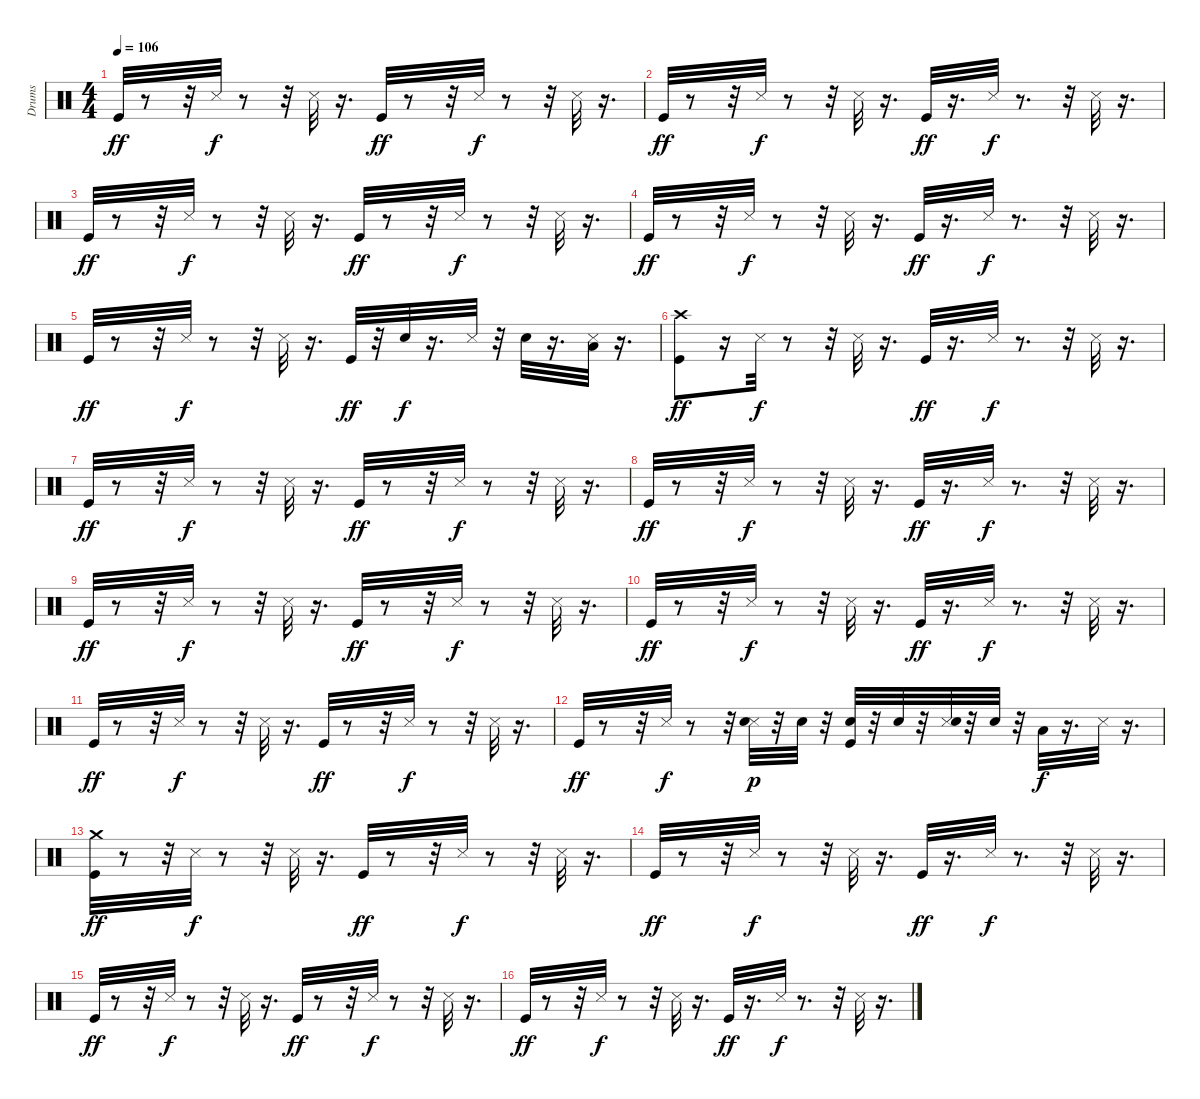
\track ("Drums" "Drums") {instrument percussion}
\staff {score}
\articulation defaults
\ts (4 4)
\tempo 106
\clef neutral
\ks c "Kick (hit)".32{dy ff}
r.8 r.32 "Snare (side stick) 3".32{dy f} r.8 r.32 "Snare (side stick) 3".32 r.16{d} "Kick (hit)".32{dy ff} r.8 r.32 "Snare (side stick) 3".32{dy f} r.8 r.32 "Snare (side stick) 3".32 r.16{d} |
"Kick (hit)".32{dy ff} r.8 r.32 "Snare (side stick) 3".32{dy f} r.8 r.32 "Snare (side stick) 3".32 r.16{d} "Kick (hit)".32{dy ff} r.16{d} "Snare (side stick) 3".32{dy f} r.8{d} r.32 "Snare (side stick) 3".32 r.16{d} |
"Kick (hit)".32{dy ff} r.8 r.32 "Snare (side stick) 3".32{dy f} r.8 r.32 "Snare (side stick) 3".32 r.16{d} "Kick (hit)".32{dy ff} r.8 r.32 "Snare (side stick) 3".32{dy f} r.8 r.32 "Snare (side stick) 3".32 r.16{d} |
"Kick (hit)".32{dy ff} r.8 r.32 "Snare (side stick) 3".32{dy f} r.8 r.32 "Snare (side stick) 3".32 r.16{d} "Kick (hit)".32{dy ff} r.16{d} "Snare (side stick) 3".32{dy f} r.8{d} r.32 "Snare (side stick) 3".32 r.16{d} |
"Kick (hit)".32{dy ff} r.8 r.32 "Snare (side stick) 3".32{dy f} r.8 r.32 "Snare (side stick) 3".32 r.16{d} "Kick (hit)".32{dy ff} r.32 "Snare (hit) 2".32{dy f} r.16{d} "Snare (side stick) 3".32 r.32 "Snare (hit) 2".32 r.16{d} ("Snare (side stick) 3" "Low Floor Tom (hit)").32 r.16{d} |
("Kick (hit)" "Crash high (hit)").8{dy ff} r.16 "Snare (side stick) 3".32{dy f} r.8 r.32 "Snare (side stick) 3".32 r.16{d} "Kick (hit)".32{dy ff} r.16{d} "Snare (side stick) 3".32{dy f} r.8{d} r.32 "Snare (side stick) 3".32 r.16{d} |
"Kick (hit)".32{dy ff} r.8 r.32 "Snare (side stick) 3".32{dy f} r.8 r.32 "Snare (side stick) 3".32 r.16{d} "Kick (hit)".32{dy ff} r.8 r.32 "Snare (side stick) 3".32{dy f} r.8 r.32 "Snare (side stick) 3".32 r.16{d} |
"Kick (hit)".32{dy ff} r.8 r.32 "Snare (side stick) 3".32{dy f} r.8 r.32 "Snare (side stick) 3".32 r.16{d} "Kick (hit)".32{dy ff} r.16{d} "Snare (side stick) 3".32{dy f} r.8{d} r.32 "Snare (side stick) 3".32 r.16{d} |
"Kick (hit)".32{dy ff} r.8 r.32 "Snare (side stick) 3".32{dy f} r.8 r.32 "Snare (side stick) 3".32 r.16{d} "Kick (hit)".32{dy ff} r.8 r.32 "Snare (side stick) 3".32{dy f} r.8 r.32 "Snare (side stick) 3".32 r.16{d} |
"Kick (hit)".32{dy ff} r.8 r.32 "Snare (side stick) 3".32{dy f} r.8 r.32 "Snare (side stick) 3".32 r.16{d} "Kick (hit)".32{dy ff} r.16{d} "Snare (side stick) 3".32{dy f} r.8{d} r.32 "Snare (side stick) 3".32 r.16{d} |
"Kick (hit)".32{dy ff} r.8 r.32 "Snare (side stick) 3".32{dy f} r.8 r.32 "Snare (side stick) 3".32 r.16{d} "Kick (hit)".32{dy ff} r.8 r.32 "Snare (side stick) 3".32{dy f} r.8 r.32 "Snare (side stick) 3".32 r.16{d} |
"Kick (hit)".32{dy ff} r.8 r.32 "Snare (side stick) 3".32{dy f} r.8 r.32 ("Snare (side stick) 3" "Snare (hit) 2").32{dy p} r.32 "Snare (hit) 2".32 r.32 ("Kick (hit)" "Snare (hit) 2").32 r.32 "Snare (hit) 2".32 r.32 ("Snare (side stick) 3" "Snare (hit) 2").32 r.32 "Snare (hit) 2".32 r.32 "Low Floor Tom (hit)".32{dy f} r.16{d} "Snare (side stick) 3".32 r.16{d} |
("Crash medium (hit)" "Kick (hit)").32{dy ff} r.8 r.32 "Snare (side stick) 3".32{dy f} r.8 r.32 "Snare (side stick) 3".32 r.16{d} "Kick (hit)".32{dy ff} r.8 r.32 "Snare (side stick) 3".32{dy f} r.8 r.32 "Snare (side stick) 3".32 r.16{d} |
"Kick (hit)".32{dy ff} r.8 r.32 "Snare (side stick) 3".32{dy f} r.8 r.32 "Snare (side stick) 3".32 r.16{d} "Kick (hit)".32{dy ff} r.16{d} "Snare (side stick) 3".32{dy f} r.8{d} r.32 "Snare (side stick) 3".32 r.16{d} |
"Kick (hit)".32{dy ff} r.8 r.32 "Snare (side stick) 3".32{dy f} r.8 r.32 "Snare (side stick) 3".32 r.16{d} "Kick (hit)".32{dy ff} r.8 r.32 "Snare (side stick) 3".32{dy f} r.8 r.32 "Snare (side stick) 3".32 r.16{d} |
"Kick (hit)".32{dy ff} r.8 r.32 "Snare (side stick) 3".32{dy f} r.8 r.32 "Snare (side stick) 3".32 r.16{d} "Kick (hit)".32{dy ff} r.16{d} "Snare (side stick) 3".32{dy f} r.8{d} r.32 "Snare (side stick) 3".32 r.16{d}
